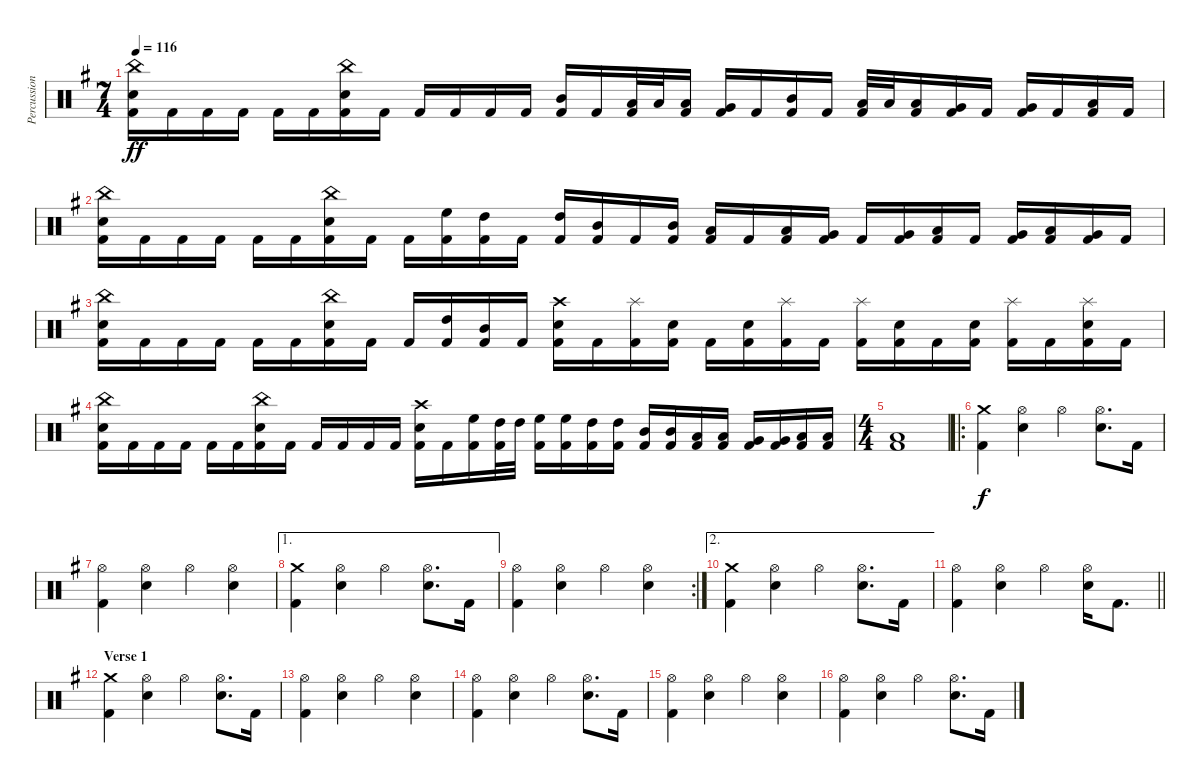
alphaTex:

\track ("Percussions" "Percussion") {instrument percussion}
\staff {score}
\articulation defaults
\ts (7 4)
\tempo 116
\clef neutral
\ks g
("China (hit)" "Snare (hit) 2" "Kick (hit) 2").16{dy ff} "Kick (hit) 2".16 "Kick (hit) 2".16 "Kick (hit) 2".16 "Kick (hit) 2".16 "Kick (hit) 2".16 ("China (hit)" "Snare (hit) 2" "Kick (hit) 2").16 "Kick (hit) 2".16 "Kick (hit) 2".16 "Kick (hit) 2".16 "Kick (hit) 2".16 "Kick (hit) 2".16 ("Mid Tom (hit)" "Kick (hit) 2").16 "Kick (hit) 2".16 ("Low Tom (hit)" "Kick (hit) 2").32 "Low Tom (hit)".32 ("Low Tom (hit)" "Kick (hit) 2").16 ("Very Low Tom (hit)" "Kick (hit) 2").16 "Kick (hit) 2".16 ("Mid Tom (hit)" "Kick (hit) 2").16 "Kick (hit) 2".16 ("Low Tom (hit)" "Kick (hit) 2").32 "Low Tom (hit)".32 ("Low Tom (hit)" "Kick (hit) 2").16 ("Very Low Tom (hit)" "Kick (hit) 2").16 "Kick (hit) 2".16 ("Very Low Tom (hit)" "Kick (hit) 2").16 "Kick (hit) 2".16 ("Low Floor Tom (hit)" "Kick (hit) 2").16 "Kick (hit) 2".16 |
("China (hit)" "Snare (hit) 2" "Kick (hit) 2").16 "Kick (hit) 2".16 "Kick (hit) 2".16 "Kick (hit) 2".16 "Kick (hit) 2".16 "Kick (hit) 2".16 ("China (hit)" "Snare (hit) 2" "Kick (hit) 2").16 "Kick (hit) 2".16 "Kick (hit) 2".16 ("High Floor Tom (hit)" "Kick (hit) 2").16 ("High Tom (hit)" "Kick (hit) 2").16 "Kick (hit) 2".16 ("High Tom (hit)" "Kick (hit) 2").16 ("Mid Tom (hit)" "Kick (hit) 2").16 "Kick (hit) 2".16 ("Mid Tom (hit)" "Kick (hit) 2").16 ("Low Tom (hit)" "Kick (hit) 2").16 "Kick (hit) 2".16 ("Low Tom (hit)" "Kick (hit) 2").16 ("Very Low Tom (hit)" "Kick (hit) 2").16 "Kick (hit) 2".16 ("Very Low Tom (hit)" "Kick (hit) 2").16 ("Low Floor Tom (hit)" "Kick (hit) 2").16 "Kick (hit) 2".16 ("Very Low Tom (hit)" "Kick (hit) 2").16 ("Low Floor Tom (hit)" "Kick (hit) 2").16 ("Very Low Tom (hit)" "Kick (hit) 2").16 "Kick (hit) 2".16 |
("China (hit)" "Snare (hit) 2" "Kick (hit) 2").16 "Kick (hit) 2".16 "Kick (hit) 2".16 "Kick (hit) 2".16 "Kick (hit) 2".16 "Kick (hit) 2".16 ("China (hit)" "Snare (hit) 2" "Kick (hit) 2").16 "Kick (hit) 2".16 "Kick (hit) 2".16 ("High Tom (hit)" "Kick (hit) 2").16 ("Mid Tom (hit)" "Kick (hit) 2").16 "Kick (hit) 2".16 ("Crash high (hit)" "Snare (hit) 2" "Kick (hit) 2").16 "Kick (hit) 2".16 ("Splash (hit)" "Kick (hit) 2").16 ("Snare (hit) 2" "Kick (hit) 2").16 "Kick (hit) 2".16 ("Snare (hit) 2" "Kick (hit) 2").16 ("Splash (hit)" "Kick (hit) 2").16 "Kick (hit) 2".16 ("Splash (hit)" "Kick (hit) 2").16 ("Snare (hit) 2" "Kick (hit) 2").16 "Kick (hit) 2".16 ("Snare (hit) 2" "Kick (hit) 2").16 ("Splash (hit)" "Kick (hit) 2").16 "Kick (hit) 2".16 ("Splash (hit)" "Snare (hit) 2" "Kick (hit) 2").16 "Kick (hit) 2".16 |
("China (hit)" "Snare (hit) 2" "Kick (hit) 2").16 "Kick (hit) 2".16 "Kick (hit) 2".16 "Kick (hit) 2".16 "Kick (hit) 2".16 "Kick (hit) 2".16 ("China (hit)" "Snare (hit) 2" "Kick (hit) 2").16 "Kick (hit) 2".16 "Kick (hit) 2".16 "Kick (hit) 2".16 "Kick (hit) 2".16 "Kick (hit) 2".16 ("Crash high (hit)" "Snare (hit) 2" "Kick (hit) 2").16 "Kick (hit) 2".16 ("High Floor Tom (hit)" "Kick (hit) 2").16 ("High Tom (hit)" "Kick (hit) 2").32 "High Tom (hit)".32 ("High Floor Tom (hit)" "Kick (hit) 2").16 ("High Floor Tom (hit)" "Kick (hit) 2").16 ("High Tom (hit)" "Kick (hit) 2").16 ("High Tom (hit)" "Kick (hit) 2").16 ("Mid Tom (hit)" "Kick (hit) 2").16 ("Mid Tom (hit)" "Kick (hit) 2").16 ("Low Tom (hit)" "Kick (hit) 2").16 ("Low Tom (hit)" "Kick (hit) 2").16 ("Very Low Tom (hit)" "Kick (hit) 2").16 ("Very Low Tom (hit)" "Kick (hit) 2").16 ("Low Floor Tom (hit)" "Kick (hit) 2").16 ("Low Floor Tom (hit)" "Kick (hit) 2").16 |
\ts (4 4)
("Low Floor Tom (hit)" "Kick (hit) 2").1 |
\ro
("Crash medium (hit)" "Kick (hit) 2").4{dy f} ("Hi-Hat (open)" "Snare (hit) 2").4 "Hi-Hat (open)".4 ("Hi-Hat (open)" "Snare (hit) 2").8{d} "Kick (hit) 2".16 |
("Hi-Hat (open)" "Kick (hit) 2").4 ("Hi-Hat (open)" "Snare (hit) 2").4 "Hi-Hat (open)".4 ("Hi-Hat (open)" "Snare (hit) 2").4 |
\ae 1
("Crash medium (hit)" "Kick (hit) 2").4 ("Hi-Hat (open)" "Snare (hit) 2").4 "Hi-Hat (open)".4 ("Hi-Hat (open)" "Snare (hit) 2").8{d} "Kick (hit) 2".16 |
\rc 2
("Hi-Hat (open)" "Kick (hit) 2").4 ("Hi-Hat (open)" "Snare (hit) 2").4 "Hi-Hat (open)".4 ("Hi-Hat (open)" "Snare (hit) 2").4 |
\ae 2
("Crash medium (hit)" "Kick (hit) 2").4 ("Hi-Hat (open)" "Snare (hit) 2").4 "Hi-Hat (open)".4 ("Hi-Hat (open)" "Snare (hit) 2").8{d} "Kick (hit) 2".16 |
\barLineRight lightlight
("Hi-Hat (open)" "Kick (hit) 2").4 ("Hi-Hat (open)" "Snare (hit) 2").4 "Hi-Hat (open)".4 ("Hi-Hat (open)" "Snare (hit) 2").16 "Kick (hit) 2".8{d} |
\section ("" "Verse 1")
("Crash medium (hit)" "Kick (hit) 2").4 ("Hi-Hat (open)" "Snare (hit) 2").4 "Hi-Hat (open)".4 ("Hi-Hat (open)" "Snare (hit) 2").8{d} "Kick (hit) 2".16 |
("Hi-Hat (open)" "Kick (hit) 2").4 ("Hi-Hat (open)" "Snare (hit) 2").4 "Hi-Hat (open)".4 ("Hi-Hat (open)" "Snare (hit) 2").4 |
("Hi-Hat (open)" "Kick (hit) 2").4 ("Hi-Hat (open)" "Snare (hit) 2").4 "Hi-Hat (open)".4 ("Hi-Hat (open)" "Snare (hit) 2").8{d} "Kick (hit) 2".16 |
("Hi-Hat (open)" "Kick (hit) 2").4 ("Hi-Hat (open)" "Snare (hit) 2").4 "Hi-Hat (open)".4 ("Hi-Hat (open)" "Snare (hit) 2").4 |
("Hi-Hat (open)" "Kick (hit) 2").4 ("Hi-Hat (open)" "Snare (hit) 2").4 "Hi-Hat (open)".4 ("Hi-Hat (open)" "Snare (hit) 2").8{d} "Kick (hit) 2".16
